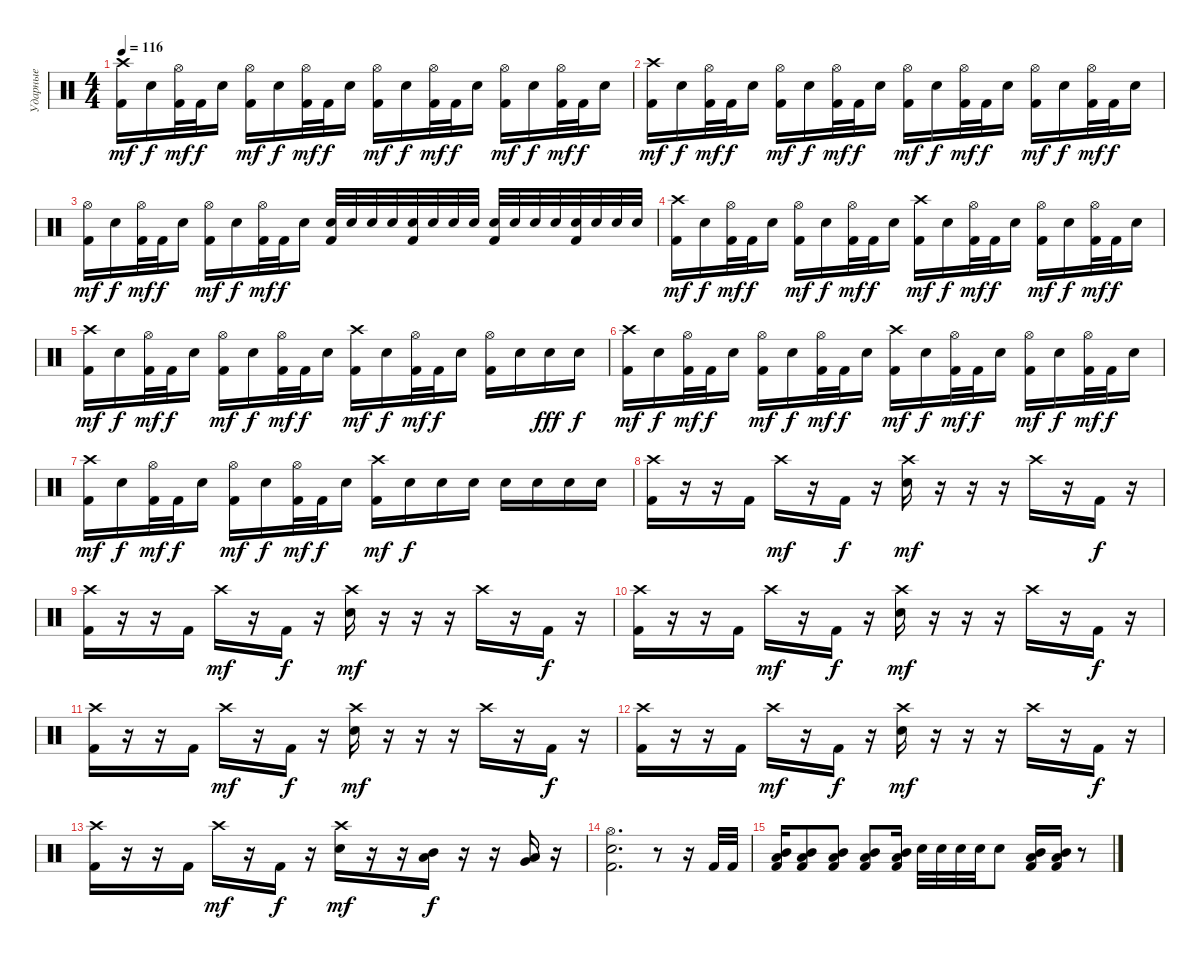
\track ("Ударные" "Ударные") {instrument percussion}
\staff {score}
\articulation defaults
\ts (4 4)
\tempo 116
\clef neutral
\ks c
("Crash high (hit)" "Kick (hit) 2").16{dy mf} "Electric Snare (hit)".16{dy f} ("Hi-Hat (open)" "Kick (hit) 2").32{dy mf} "Kick (hit) 2".32{dy f} "Electric Snare (hit)".16 ("Hi-Hat (open)" "Kick (hit) 2").16{dy mf} "Electric Snare (hit)".16{dy f} ("Hi-Hat (open)" "Kick (hit) 2").32{dy mf} "Kick (hit) 2".32{dy f} "Electric Snare (hit)".16 ("Hi-Hat (open)" "Kick (hit) 2").16{dy mf} "Electric Snare (hit)".16{dy f} ("Hi-Hat (open)" "Kick (hit) 2").32{dy mf} "Kick (hit) 2".32{dy f} "Electric Snare (hit)".16 ("Hi-Hat (open)" "Kick (hit) 2").16{dy mf} "Electric Snare (hit)".16{dy f} ("Hi-Hat (open)" "Kick (hit) 2").32{dy mf} "Kick (hit) 2".32{dy f} "Electric Snare (hit)".16 |
("Crash high (hit)" "Kick (hit) 2").16{dy mf} "Electric Snare (hit)".16{dy f} ("Hi-Hat (open)" "Kick (hit) 2").32{dy mf} "Kick (hit) 2".32{dy f} "Electric Snare (hit)".16 ("Hi-Hat (open)" "Kick (hit) 2").16{dy mf} "Electric Snare (hit)".16{dy f} ("Hi-Hat (open)" "Kick (hit) 2").32{dy mf} "Kick (hit) 2".32{dy f} "Electric Snare (hit)".16 ("Hi-Hat (open)" "Kick (hit) 2").16{dy mf} "Electric Snare (hit)".16{dy f} ("Hi-Hat (open)" "Kick (hit) 2").32{dy mf} "Kick (hit) 2".32{dy f} "Electric Snare (hit)".16 ("Hi-Hat (open)" "Kick (hit) 2").16{dy mf} "Electric Snare (hit)".16{dy f} ("Hi-Hat (open)" "Kick (hit) 2").32{dy mf} "Kick (hit) 2".32{dy f} "Electric Snare (hit)".16 |
("Hi-Hat (open)" "Kick (hit) 2").16{dy mf} "Electric Snare (hit)".16{dy f} ("Hi-Hat (open)" "Kick (hit) 2").32{dy mf} "Kick (hit) 2".32{dy f} "Electric Snare (hit)".16 ("Hi-Hat (open)" "Kick (hit) 2").16{dy mf} "Electric Snare (hit)".16{dy f} ("Hi-Hat (open)" "Kick (hit) 2").32{dy mf} "Kick (hit) 2".32{dy f} "Electric Snare (hit)".16 ("Electric Snare (hit)" "Kick (hit) 2").32 "Electric Snare (hit)".32 "Electric Snare (hit)".32 "Electric Snare (hit)".32 ("Electric Snare (hit)" "Kick (hit) 2").32 "Electric Snare (hit)".32 "Electric Snare (hit)".32 "Electric Snare (hit)".32 ("Electric Snare (hit)" "Kick (hit) 2").32 "Electric Snare (hit)".32 "Electric Snare (hit)".32 "Electric Snare (hit)".32 ("Electric Snare (hit)" "Kick (hit) 2").32 "Electric Snare (hit)".32 "Electric Snare (hit)".32 "Electric Snare (hit)".32 |
("Crash high (hit)" "Kick (hit) 2").16{dy mf} "Electric Snare (hit)".16{dy f} ("Hi-Hat (open)" "Kick (hit) 2").32{dy mf} "Kick (hit) 2".32{dy f} "Electric Snare (hit)".16 ("Hi-Hat (open)" "Kick (hit) 2").16{dy mf} "Electric Snare (hit)".16{dy f} ("Hi-Hat (open)" "Kick (hit) 2").32{dy mf} "Kick (hit) 2".32{dy f} "Electric Snare (hit)".16 ("Crash high (hit)" "Kick (hit) 2").16{dy mf} "Electric Snare (hit)".16{dy f} ("Hi-Hat (open)" "Kick (hit) 2").32{dy mf} "Kick (hit) 2".32{dy f} "Electric Snare (hit)".16 ("Hi-Hat (open)" "Kick (hit) 2").16{dy mf} "Electric Snare (hit)".16{dy f} ("Hi-Hat (open)" "Kick (hit) 2").32{dy mf} "Kick (hit) 2".32{dy f} "Electric Snare (hit)".16 |
("Crash high (hit)" "Kick (hit) 2").16{dy mf} "Electric Snare (hit)".16{dy f} ("Hi-Hat (open)" "Kick (hit) 2").32{dy mf} "Kick (hit) 2".32{dy f} "Electric Snare (hit)".16 ("Hi-Hat (open)" "Kick (hit) 2").16{dy mf} "Electric Snare (hit)".16{dy f} ("Hi-Hat (open)" "Kick (hit) 2").32{dy mf} "Kick (hit) 2".32{dy f} "Electric Snare (hit)".16 ("Crash high (hit)" "Kick (hit) 2").16{dy mf} "Electric Snare (hit)".16{dy f} ("Hi-Hat (open)" "Kick (hit) 2").32{dy mf} "Kick (hit) 2".32{dy f} "Electric Snare (hit)".16 ("Hi-Hat (open)" "Kick (hit) 2").16 "Electric Snare (hit)".16 "Electric Snare (hit)".16{dy fff} "Electric Snare (hit)".16{dy f} |
("Crash high (hit)" "Kick (hit) 2").16{dy mf} "Electric Snare (hit)".16{dy f} ("Hi-Hat (open)" "Kick (hit) 2").32{dy mf} "Kick (hit) 2".32{dy f} "Electric Snare (hit)".16 ("Hi-Hat (open)" "Kick (hit) 2").16{dy mf} "Electric Snare (hit)".16{dy f} ("Hi-Hat (open)" "Kick (hit) 2").32{dy mf} "Kick (hit) 2".32{dy f} "Electric Snare (hit)".16 ("Crash high (hit)" "Kick (hit) 2").16{dy mf} "Electric Snare (hit)".16{dy f} ("Hi-Hat (open)" "Kick (hit) 2").32{dy mf} "Kick (hit) 2".32{dy f} "Electric Snare (hit)".16 ("Hi-Hat (open)" "Kick (hit) 2").16{dy mf} "Electric Snare (hit)".16{dy f} ("Hi-Hat (open)" "Kick (hit) 2").32{dy mf} "Kick (hit) 2".32{dy f} "Electric Snare (hit)".16 |
("Crash high (hit)" "Kick (hit) 2").16{dy mf} "Electric Snare (hit)".16{dy f} ("Hi-Hat (open)" "Kick (hit) 2").32{dy mf} "Kick (hit) 2".32{dy f} "Electric Snare (hit)".16 ("Hi-Hat (open)" "Kick (hit) 2").16{dy mf} "Electric Snare (hit)".16{dy f} ("Hi-Hat (open)" "Kick (hit) 2").32{dy mf} "Kick (hit) 2".32{dy f} "Electric Snare (hit)".16 ("Crash high (hit)" "Kick (hit) 2").16{dy mf} "Electric Snare (hit)".16{dy f} "Electric Snare (hit)".16 "Electric Snare (hit)".16 "Electric Snare (hit)".16 "Electric Snare (hit)".16 "Electric Snare (hit)".16 "Electric Snare (hit)".16 |
("Crash high (hit)" "Kick (hit) 2").16 r.16 r.16 "Kick (hit) 2".16 "Crash high (hit)".16{dy mf} r.16 "Kick (hit) 2".16{dy f} r.16 ("Crash high (hit)" "Electric Snare (hit)").16{dy mf} r.16 r.16 r.16 "Crash high (hit)".16 r.16 "Kick (hit) 2".16{dy f} r.16 |
("Crash high (hit)" "Kick (hit) 2").16 r.16 r.16 "Kick (hit) 2".16 "Crash high (hit)".16{dy mf} r.16 "Kick (hit) 2".16{dy f} r.16 ("Crash high (hit)" "Electric Snare (hit)").16{dy mf} r.16 r.16 r.16 "Crash high (hit)".16 r.16 "Kick (hit) 2".16{dy f} r.16 |
("Crash high (hit)" "Kick (hit) 2").16 r.16 r.16 "Kick (hit) 2".16 "Crash high (hit)".16{dy mf} r.16 "Kick (hit) 2".16{dy f} r.16 ("Crash high (hit)" "Electric Snare (hit)").16{dy mf} r.16 r.16 r.16 "Crash high (hit)".16 r.16 "Kick (hit) 2".16{dy f} r.16 |
("Crash high (hit)" "Kick (hit) 2").16 r.16 r.16 "Kick (hit) 2".16 "Crash high (hit)".16{dy mf} r.16 "Kick (hit) 2".16{dy f} r.16 ("Crash high (hit)" "Electric Snare (hit)").16{dy mf} r.16 r.16 r.16 "Crash high (hit)".16 r.16 "Kick (hit) 2".16{dy f} r.16 |
("Crash high (hit)" "Kick (hit) 2").16 r.16 r.16 "Kick (hit) 2".16 "Crash high (hit)".16{dy mf} r.16 "Kick (hit) 2".16{dy f} r.16 ("Crash high (hit)" "Electric Snare (hit)").16{dy mf} r.16 r.16 r.16 "Crash high (hit)".16 r.16 "Kick (hit) 2".16{dy f} r.16 |
("Crash high (hit)" "Kick (hit) 2").16 r.16 r.16 "Kick (hit) 2".16 "Crash high (hit)".16{dy mf} r.16 "Kick (hit) 2".16{dy f} r.16 ("Crash high (hit)" "Electric Snare (hit)").16{dy mf} r.16 r.16 ("Low Tom (hit)" "Mid Tom (hit)").16{dy f} r.16 r.16 ("Very Low Tom (hit)" "Low Tom (hit)").16 r.16 |
("Hi-Hat (open)" "Electric Snare (hit)" "Kick (hit) 2").2{d} r.8 r.16 "Kick (hit) 2".32 "Kick (hit) 2".32 |
("Low Tom (hit)" "Mid Tom (hit)" "Kick (hit) 2").16 ("Mid Tom (hit)" "Low Tom (hit)" "Kick (hit) 2").8 ("Low Tom (hit)" "Mid Tom (hit)" "Kick (hit) 2").8 ("Low Tom (hit)" "Mid Tom (hit)" "Kick (hit) 2").8 ("Low Tom (hit)" "Mid Tom (hit)" "Kick (hit) 2").16 "Electric Snare (hit)".32 "Electric Snare (hit)".32 "Electric Snare (hit)".32 "Electric Snare (hit)".32 "Electric Snare (hit)".8 ("Low Tom (hit)" "Mid Tom (hit)" "Kick (hit) 2").16 ("Low Tom (hit)" "Mid Tom (hit)" "Kick (hit) 2").16 r.8
